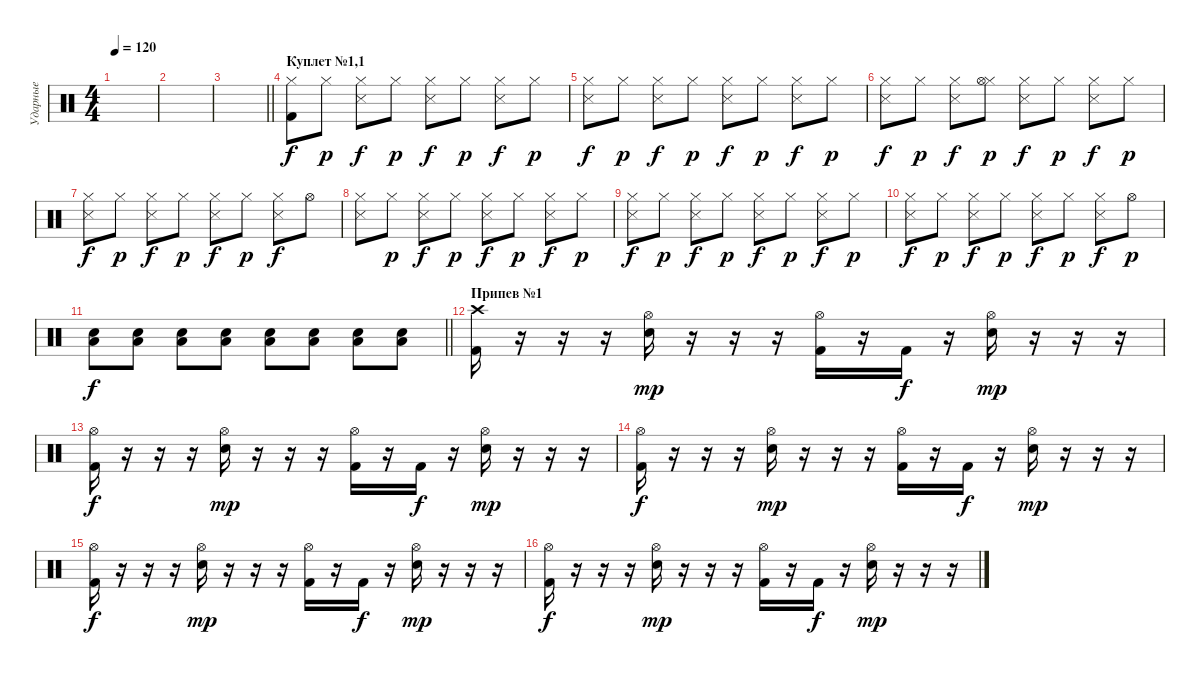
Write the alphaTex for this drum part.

\track ("Ударные" "Ударные") {instrument percussion}
\staff {score}
\articulation defaults
\ts (4 4)
\tempo 120
\clef neutral
\ks c
|
|
\barLineRight lightlight
|
\section ("" "Куплет №1,1")
("Hi-Hat (closed)" "Kick (hit) 2").8 "Hi-Hat (closed)".8{dy p} ("Hi-Hat (closed)" "Snare (side stick) 3").8{dy f} "Hi-Hat (closed)".8{dy p} ("Hi-Hat (closed)" "Snare (side stick) 3").8{dy f} "Hi-Hat (closed)".8{dy p} ("Hi-Hat (closed)" "Snare (side stick) 3").8{dy f} "Hi-Hat (closed)".8{dy p} |
("Hi-Hat (closed)" "Snare (side stick) 3").8{dy f} "Hi-Hat (closed)".8{dy p} ("Hi-Hat (closed)" "Snare (side stick) 3").8{dy f} "Hi-Hat (closed)".8{dy p} ("Hi-Hat (closed)" "Snare (side stick) 3").8{dy f} "Hi-Hat (closed)".8{dy p} ("Hi-Hat (closed)" "Snare (side stick) 3").8{dy f} "Hi-Hat (closed)".8{dy p} |
("Hi-Hat (closed)" "Snare (side stick) 3").8{dy f} "Hi-Hat (closed)".8{dy p} ("Hi-Hat (closed)" "Snare (side stick) 3").8{dy f} ("Hi-Hat (closed)" "Hi-Hat (open)").8{dy p} ("Hi-Hat (closed)" "Snare (side stick) 3").8{dy f} "Hi-Hat (closed)".8{dy p} ("Hi-Hat (closed)" "Snare (side stick) 3").8{dy f} "Hi-Hat (closed)".8{dy p} |
("Hi-Hat (closed)" "Snare (side stick) 3").8{dy f} "Hi-Hat (closed)".8{dy p} ("Hi-Hat (closed)" "Snare (side stick) 3").8{dy f} "Hi-Hat (closed)".8{dy p} ("Hi-Hat (closed)" "Snare (side stick) 3").8{dy f} "Hi-Hat (closed)".8{dy p} ("Hi-Hat (closed)" "Snare (side stick) 3").8{dy f} "Hi-Hat (open)".8 |
("Hi-Hat (closed)" "Snare (side stick) 3").8 "Hi-Hat (closed)".8{dy p} ("Hi-Hat (closed)" "Snare (side stick) 3").8{dy f} "Hi-Hat (closed)".8{dy p} ("Hi-Hat (closed)" "Snare (side stick) 3").8{dy f} "Hi-Hat (closed)".8{dy p} ("Hi-Hat (closed)" "Snare (side stick) 3").8{dy f} "Hi-Hat (closed)".8{dy p} |
("Hi-Hat (closed)" "Snare (side stick) 3").8{dy f} "Hi-Hat (closed)".8{dy p} ("Hi-Hat (closed)" "Snare (side stick) 3").8{dy f} "Hi-Hat (closed)".8{dy p} ("Hi-Hat (closed)" "Snare (side stick) 3").8{dy f} "Hi-Hat (closed)".8{dy p} ("Hi-Hat (closed)" "Snare (side stick) 3").8{dy f} "Hi-Hat (closed)".8{dy p} |
("Hi-Hat (closed)" "Snare (side stick) 3").8{dy f} "Hi-Hat (closed)".8{dy p} ("Hi-Hat (closed)" "Snare (side stick) 3").8{dy f} "Hi-Hat (closed)".8{dy p} ("Hi-Hat (closed)" "Snare (side stick) 3").8{dy f} "Hi-Hat (closed)".8{dy p} ("Hi-Hat (closed)" "Snare (side stick) 3").8{dy f} "Hi-Hat (open)".8{dy p} |
\barLineRight lightlight
("Low Floor Tom (hit)" "Snare (hit) 2").8{dy f} ("Low Floor Tom (hit)" "Snare (hit) 2").8 ("Low Floor Tom (hit)" "Snare (hit) 2").8 ("Low Floor Tom (hit)" "Snare (hit) 2").8 ("Low Floor Tom (hit)" "Snare (hit) 2").8 ("Low Floor Tom (hit)" "Snare (hit) 2").8 ("Low Floor Tom (hit)" "Snare (hit) 2").8 ("Low Floor Tom (hit)" "Snare (hit) 2").8 |
\section ("" "Припев №1")
("Kick (hit) 2" "Crash high (hit)").16 r.16 r.16 r.16 ("Snare (hit) 2" "Hi-Hat (open)").16{dy mp} r.16 r.16 r.16 ("Kick (hit) 2" "Hi-Hat (open)").16 r.16 "Kick (hit) 2".16{dy f} r.16 ("Snare (hit) 2" "Hi-Hat (open)").16{dy mp} r.16 r.16 r.16 |
("Kick (hit) 2" "Hi-Hat (open)").16{dy f} r.16 r.16 r.16 ("Snare (hit) 2" "Hi-Hat (open)").16{dy mp} r.16 r.16 r.16 ("Kick (hit) 2" "Hi-Hat (open)").16 r.16 "Kick (hit) 2".16{dy f} r.16 ("Snare (hit) 2" "Hi-Hat (open)").16{dy mp} r.16 r.16 r.16 |
("Kick (hit) 2" "Hi-Hat (open)").16{dy f} r.16 r.16 r.16 ("Snare (hit) 2" "Hi-Hat (open)").16{dy mp} r.16 r.16 r.16 ("Kick (hit) 2" "Hi-Hat (open)").16 r.16 "Kick (hit) 2".16{dy f} r.16 ("Snare (hit) 2" "Hi-Hat (open)").16{dy mp} r.16 r.16 r.16 |
("Kick (hit) 2" "Hi-Hat (open)").16{dy f} r.16 r.16 r.16 ("Snare (hit) 2" "Hi-Hat (open)").16{dy mp} r.16 r.16 r.16 ("Kick (hit) 2" "Hi-Hat (open)").16 r.16 "Kick (hit) 2".16{dy f} r.16 ("Snare (hit) 2" "Hi-Hat (open)").16{dy mp} r.16 r.16 r.16 |
("Kick (hit) 2" "Hi-Hat (open)").16{dy f} r.16 r.16 r.16 ("Snare (hit) 2" "Hi-Hat (open)").16{dy mp} r.16 r.16 r.16 ("Kick (hit) 2" "Hi-Hat (open)").16 r.16 "Kick (hit) 2".16{dy f} r.16 ("Snare (hit) 2" "Hi-Hat (open)").16{dy mp} r.16 r.16 r.16
